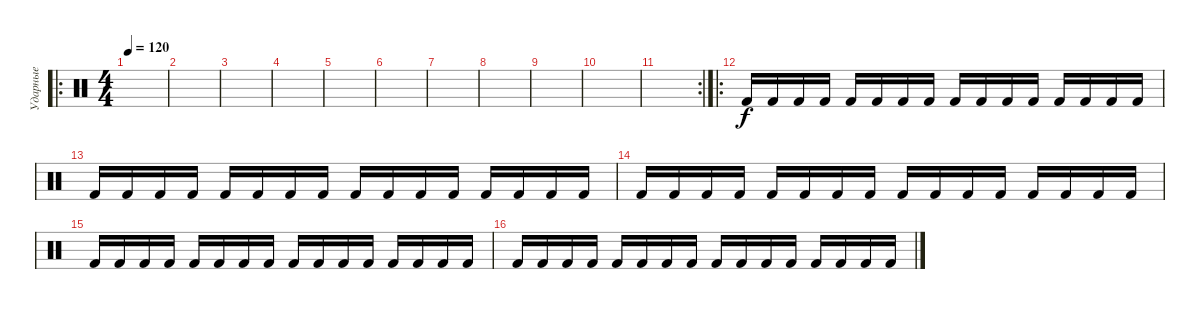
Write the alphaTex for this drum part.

\track ("Ударные" "Ударные") {instrument percussion}
\staff {score}
\articulation defaults
\ro
\ts (4 4)
\tempo 120
\clef neutral
\ks c
|
|
|
|
|
|
|
|
|
|
\rc 2
|
\ro "Kick (hit) 2".16 "Kick (hit) 2".16 "Kick (hit) 2".16 "Kick (hit) 2".16 "Kick (hit) 2".16 "Kick (hit) 2".16 "Kick (hit) 2".16 "Kick (hit) 2".16 "Kick (hit) 2".16 "Kick (hit) 2".16 "Kick (hit) 2".16 "Kick (hit) 2".16 "Kick (hit) 2".16 "Kick (hit) 2".16 "Kick (hit) 2".16 "Kick (hit) 2".16
|
"Kick (hit) 2".16 "Kick (hit) 2".16 "Kick (hit) 2".16 "Kick (hit) 2".16 "Kick (hit) 2".16 "Kick (hit) 2".16 "Kick (hit) 2".16 "Kick (hit) 2".16 "Kick (hit) 2".16 "Kick (hit) 2".16 "Kick (hit) 2".16 "Kick (hit) 2".16 "Kick (hit) 2".16 "Kick (hit) 2".16 "Kick (hit) 2".16 "Kick (hit) 2".16 |
"Kick (hit) 2".16 "Kick (hit) 2".16 "Kick (hit) 2".16 "Kick (hit) 2".16 "Kick (hit) 2".16 "Kick (hit) 2".16 "Kick (hit) 2".16 "Kick (hit) 2".16 "Kick (hit) 2".16 "Kick (hit) 2".16 "Kick (hit) 2".16 "Kick (hit) 2".16 "Kick (hit) 2".16 "Kick (hit) 2".16 "Kick (hit) 2".16 "Kick (hit) 2".16 |
"Kick (hit) 2".16 "Kick (hit) 2".16 "Kick (hit) 2".16 "Kick (hit) 2".16 "Kick (hit) 2".16 "Kick (hit) 2".16 "Kick (hit) 2".16 "Kick (hit) 2".16 "Kick (hit) 2".16 "Kick (hit) 2".16 "Kick (hit) 2".16 "Kick (hit) 2".16 "Kick (hit) 2".16 "Kick (hit) 2".16 "Kick (hit) 2".16 "Kick (hit) 2".16 |
"Kick (hit) 2".16 "Kick (hit) 2".16 "Kick (hit) 2".16 "Kick (hit) 2".16 "Kick (hit) 2".16 "Kick (hit) 2".16 "Kick (hit) 2".16 "Kick (hit) 2".16 "Kick (hit) 2".16 "Kick (hit) 2".16 "Kick (hit) 2".16 "Kick (hit) 2".16 "Kick (hit) 2".16 "Kick (hit) 2".16 "Kick (hit) 2".16 "Kick (hit) 2".16
